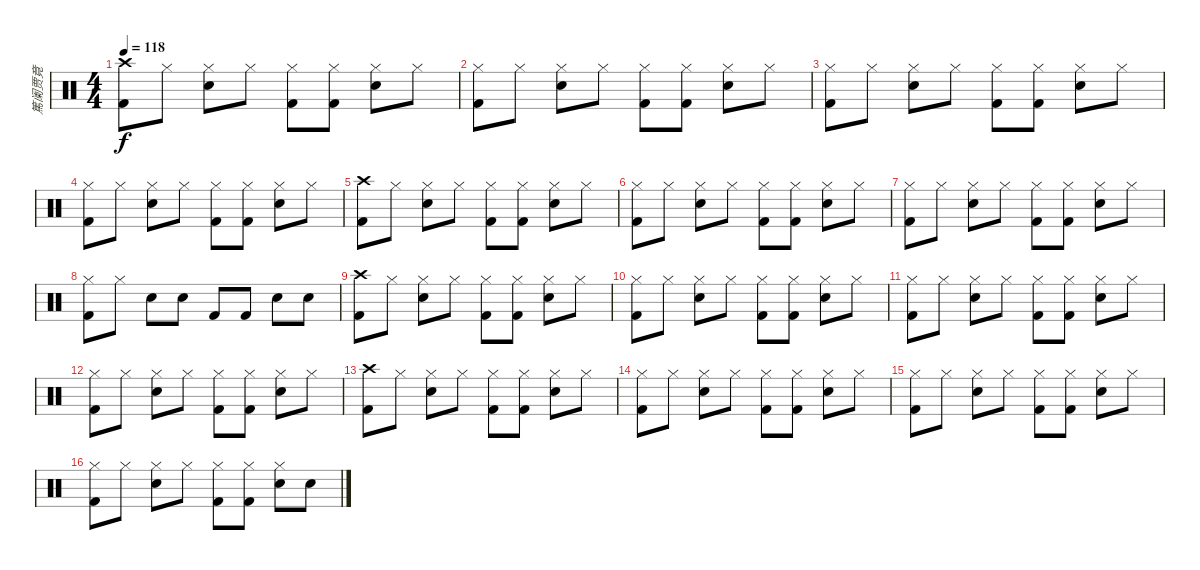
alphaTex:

\track ("篤阑贾竟" "篤阑贾竟") {instrument percussion}
\staff {score}
\articulation defaults
\ts (4 4)
\tempo 118
\clef neutral
\ks c
("Crash high (hit)" "Kick (hit) 2").8{dy f} "Hi-Hat (closed)".8 ("Hi-Hat (closed)" "Snare (hit) 2").8 "Hi-Hat (closed)".8 ("Hi-Hat (closed)" "Kick (hit) 2").8 ("Hi-Hat (closed)" "Kick (hit) 2").8 ("Hi-Hat (closed)" "Snare (hit) 2").8 "Hi-Hat (closed)".8 |
("Hi-Hat (closed)" "Kick (hit) 2").8 "Hi-Hat (closed)".8 ("Hi-Hat (closed)" "Snare (hit) 2").8 "Hi-Hat (closed)".8 ("Hi-Hat (closed)" "Kick (hit) 2").8 ("Hi-Hat (closed)" "Kick (hit) 2").8 ("Hi-Hat (closed)" "Snare (hit) 2").8 "Hi-Hat (closed)".8 |
("Hi-Hat (closed)" "Kick (hit) 2").8 "Hi-Hat (closed)".8 ("Hi-Hat (closed)" "Snare (hit) 2").8 "Hi-Hat (closed)".8 ("Hi-Hat (closed)" "Kick (hit) 2").8 ("Hi-Hat (closed)" "Kick (hit) 2").8 ("Hi-Hat (closed)" "Snare (hit) 2").8 "Hi-Hat (closed)".8 |
("Hi-Hat (closed)" "Kick (hit) 2").8 "Hi-Hat (closed)".8 ("Hi-Hat (closed)" "Snare (hit) 2").8 "Hi-Hat (closed)".8 ("Hi-Hat (closed)" "Kick (hit) 2").8 ("Hi-Hat (closed)" "Kick (hit) 2").8 ("Hi-Hat (closed)" "Snare (hit) 2").8 "Hi-Hat (closed)".8 |
("Crash high (hit)" "Kick (hit) 2").8 "Hi-Hat (closed)".8 ("Hi-Hat (closed)" "Snare (hit) 2").8 "Hi-Hat (closed)".8 ("Hi-Hat (closed)" "Kick (hit) 2").8 ("Hi-Hat (closed)" "Kick (hit) 2").8 ("Hi-Hat (closed)" "Snare (hit) 2").8 "Hi-Hat (closed)".8 |
("Hi-Hat (closed)" "Kick (hit) 2").8 "Hi-Hat (closed)".8 ("Hi-Hat (closed)" "Snare (hit) 2").8 "Hi-Hat (closed)".8 ("Hi-Hat (closed)" "Kick (hit) 2").8 ("Hi-Hat (closed)" "Kick (hit) 2").8 ("Hi-Hat (closed)" "Snare (hit) 2").8 "Hi-Hat (closed)".8 |
("Hi-Hat (closed)" "Kick (hit) 2").8 "Hi-Hat (closed)".8 ("Hi-Hat (closed)" "Snare (hit) 2").8 "Hi-Hat (closed)".8 ("Hi-Hat (closed)" "Kick (hit) 2").8 ("Hi-Hat (closed)" "Kick (hit) 2").8 ("Hi-Hat (closed)" "Snare (hit) 2").8 "Hi-Hat (closed)".8 |
("Hi-Hat (closed)" "Kick (hit) 2").8 "Hi-Hat (closed)".8 "Snare (hit) 2".8 "Snare (hit) 2".8 "Kick (hit) 2".8 "Kick (hit) 2".8 "Snare (hit) 2".8 "Snare (hit) 2".8 |
("Crash high (hit)" "Kick (hit) 2").8 "Hi-Hat (closed)".8 ("Hi-Hat (closed)" "Snare (hit) 2").8 "Hi-Hat (closed)".8 ("Hi-Hat (closed)" "Kick (hit) 2").8 ("Hi-Hat (closed)" "Kick (hit) 2").8 ("Hi-Hat (closed)" "Snare (hit) 2").8 "Hi-Hat (closed)".8 |
("Hi-Hat (closed)" "Kick (hit) 2").8 "Hi-Hat (closed)".8 ("Hi-Hat (closed)" "Snare (hit) 2").8 "Hi-Hat (closed)".8 ("Hi-Hat (closed)" "Kick (hit) 2").8 ("Hi-Hat (closed)" "Kick (hit) 2").8 ("Hi-Hat (closed)" "Snare (hit) 2").8 "Hi-Hat (closed)".8 |
("Hi-Hat (closed)" "Kick (hit) 2").8 "Hi-Hat (closed)".8 ("Hi-Hat (closed)" "Snare (hit) 2").8 "Hi-Hat (closed)".8 ("Hi-Hat (closed)" "Kick (hit) 2").8 ("Hi-Hat (closed)" "Kick (hit) 2").8 ("Hi-Hat (closed)" "Snare (hit) 2").8 "Hi-Hat (closed)".8 |
("Hi-Hat (closed)" "Kick (hit) 2").8 "Hi-Hat (closed)".8 ("Hi-Hat (closed)" "Snare (hit) 2").8 "Hi-Hat (closed)".8 ("Hi-Hat (closed)" "Kick (hit) 2").8 ("Hi-Hat (closed)" "Kick (hit) 2").8 ("Hi-Hat (closed)" "Snare (hit) 2").8 "Hi-Hat (closed)".8 |
("Crash high (hit)" "Kick (hit) 2").8 "Hi-Hat (closed)".8 ("Hi-Hat (closed)" "Snare (hit) 2").8 "Hi-Hat (closed)".8 ("Hi-Hat (closed)" "Kick (hit) 2").8 ("Hi-Hat (closed)" "Kick (hit) 2").8 ("Hi-Hat (closed)" "Snare (hit) 2").8 "Hi-Hat (closed)".8 |
("Hi-Hat (closed)" "Kick (hit) 2").8 "Hi-Hat (closed)".8 ("Hi-Hat (closed)" "Snare (hit) 2").8 "Hi-Hat (closed)".8 ("Hi-Hat (closed)" "Kick (hit) 2").8 ("Hi-Hat (closed)" "Kick (hit) 2").8 ("Hi-Hat (closed)" "Snare (hit) 2").8 "Hi-Hat (closed)".8 |
("Hi-Hat (closed)" "Kick (hit) 2").8 "Hi-Hat (closed)".8 ("Hi-Hat (closed)" "Snare (hit) 2").8 "Hi-Hat (closed)".8 ("Hi-Hat (closed)" "Kick (hit) 2").8 ("Hi-Hat (closed)" "Kick (hit) 2").8 ("Hi-Hat (closed)" "Snare (hit) 2").8 "Hi-Hat (closed)".8 |
("Hi-Hat (closed)" "Kick (hit) 2").8 "Hi-Hat (closed)".8 ("Hi-Hat (closed)" "Snare (hit) 2").8 "Hi-Hat (closed)".8 ("Hi-Hat (closed)" "Kick (hit) 2").8 ("Hi-Hat (closed)" "Kick (hit) 2").8 ("Hi-Hat (closed)" "Snare (hit) 2").8 "Snare (hit) 2".8
